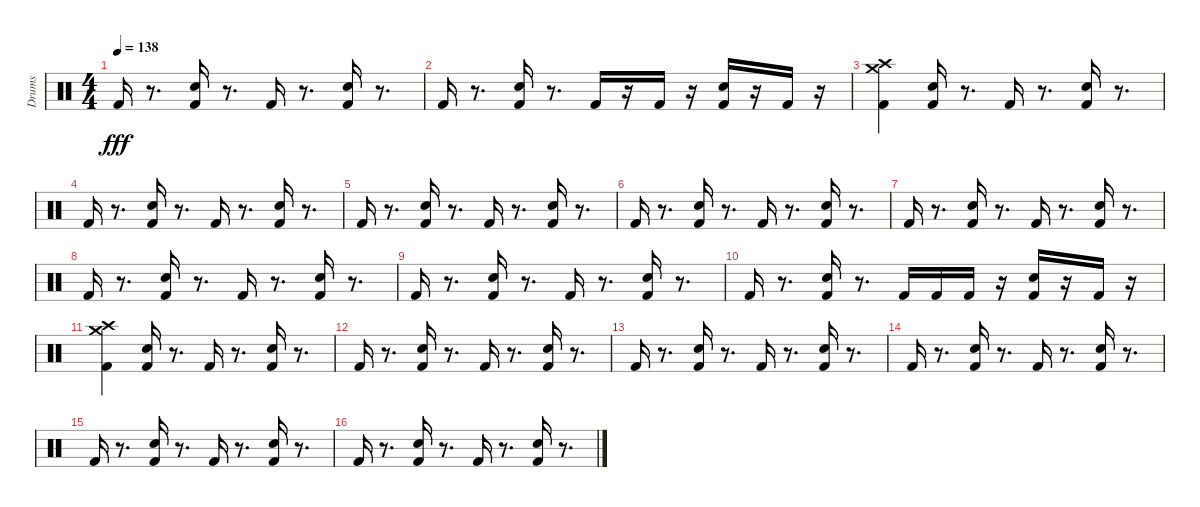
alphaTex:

\track ("Drums" "Drums") {instrument percussion}
\staff {score}
\articulation defaults
\ts (4 4)
\tempo 138
\clef neutral
\ks c "Kick (hit) 2".16{dy fff}
r.8{d} ("Kick (hit) 2" "Hand Clap (hit)").16 r.8{d} "Kick (hit) 2".16 r.8{d} ("Kick (hit) 2" "Hand Clap (hit)").16 r.8{d} |
"Kick (hit) 2".16 r.8{d} ("Kick (hit) 2" "Hand Clap (hit)").16 r.8{d} "Kick (hit) 2".16 r.16 "Kick (hit) 2".16 r.16 ("Kick (hit) 2" "Hand Clap (hit)").16 r.16 "Kick (hit) 2".16 r.16 |
("Kick (hit) 2" "Crash medium (hit)" "Crash high (hit)").4 ("Kick (hit) 2" "Hand Clap (hit)").16 r.8{d} "Kick (hit) 2".16 r.8{d} ("Kick (hit) 2" "Hand Clap (hit)").16 r.8{d} |
"Kick (hit) 2".16 r.8{d} ("Kick (hit) 2" "Hand Clap (hit)").16 r.8{d} "Kick (hit) 2".16 r.8{d} ("Kick (hit) 2" "Hand Clap (hit)").16 r.8{d} |
"Kick (hit) 2".16 r.8{d} ("Kick (hit) 2" "Hand Clap (hit)").16 r.8{d} "Kick (hit) 2".16 r.8{d} ("Kick (hit) 2" "Hand Clap (hit)").16 r.8{d} |
"Kick (hit) 2".16 r.8{d} ("Kick (hit) 2" "Hand Clap (hit)").16 r.8{d} "Kick (hit) 2".16 r.8{d} ("Kick (hit) 2" "Hand Clap (hit)").16 r.8{d} |
"Kick (hit) 2".16 r.8{d} ("Kick (hit) 2" "Hand Clap (hit)").16 r.8{d} "Kick (hit) 2".16 r.8{d} ("Kick (hit) 2" "Hand Clap (hit)").16 r.8{d} |
"Kick (hit) 2".16 r.8{d} ("Kick (hit) 2" "Hand Clap (hit)").16 r.8{d} "Kick (hit) 2".16 r.8{d} ("Kick (hit) 2" "Hand Clap (hit)").16 r.8{d} |
"Kick (hit) 2".16 r.8{d} ("Kick (hit) 2" "Hand Clap (hit)").16 r.8{d} "Kick (hit) 2".16 r.8{d} ("Kick (hit) 2" "Hand Clap (hit)").16 r.8{d} |
"Kick (hit) 2".16 r.8{d} ("Kick (hit) 2" "Hand Clap (hit)").16 r.8{d} "Kick (hit) 2".16 "Kick (hit) 2".16 "Kick (hit) 2".16 r.16 ("Kick (hit) 2" "Hand Clap (hit)").16 r.16 "Kick (hit) 2".16 r.16 |
("Kick (hit) 2" "Crash medium (hit)" "Crash high (hit)").4 ("Kick (hit) 2" "Hand Clap (hit)").16 r.8{d} "Kick (hit) 2".16 r.8{d} ("Kick (hit) 2" "Hand Clap (hit)").16 r.8{d} |
"Kick (hit) 2".16 r.8{d} ("Kick (hit) 2" "Hand Clap (hit)").16 r.8{d} "Kick (hit) 2".16 r.8{d} ("Kick (hit) 2" "Hand Clap (hit)").16 r.8{d} |
"Kick (hit) 2".16 r.8{d} ("Kick (hit) 2" "Hand Clap (hit)").16 r.8{d} "Kick (hit) 2".16 r.8{d} ("Kick (hit) 2" "Hand Clap (hit)").16 r.8{d} |
"Kick (hit) 2".16 r.8{d} ("Kick (hit) 2" "Hand Clap (hit)").16 r.8{d} "Kick (hit) 2".16 r.8{d} ("Kick (hit) 2" "Hand Clap (hit)").16 r.8{d} |
"Kick (hit) 2".16 r.8{d} ("Kick (hit) 2" "Hand Clap (hit)").16 r.8{d} "Kick (hit) 2".16 r.8{d} ("Kick (hit) 2" "Hand Clap (hit)").16 r.8{d} |
"Kick (hit) 2".16 r.8{d} ("Kick (hit) 2" "Hand Clap (hit)").16 r.8{d} "Kick (hit) 2".16 r.8{d} ("Kick (hit) 2" "Hand Clap (hit)").16 r.8{d}
